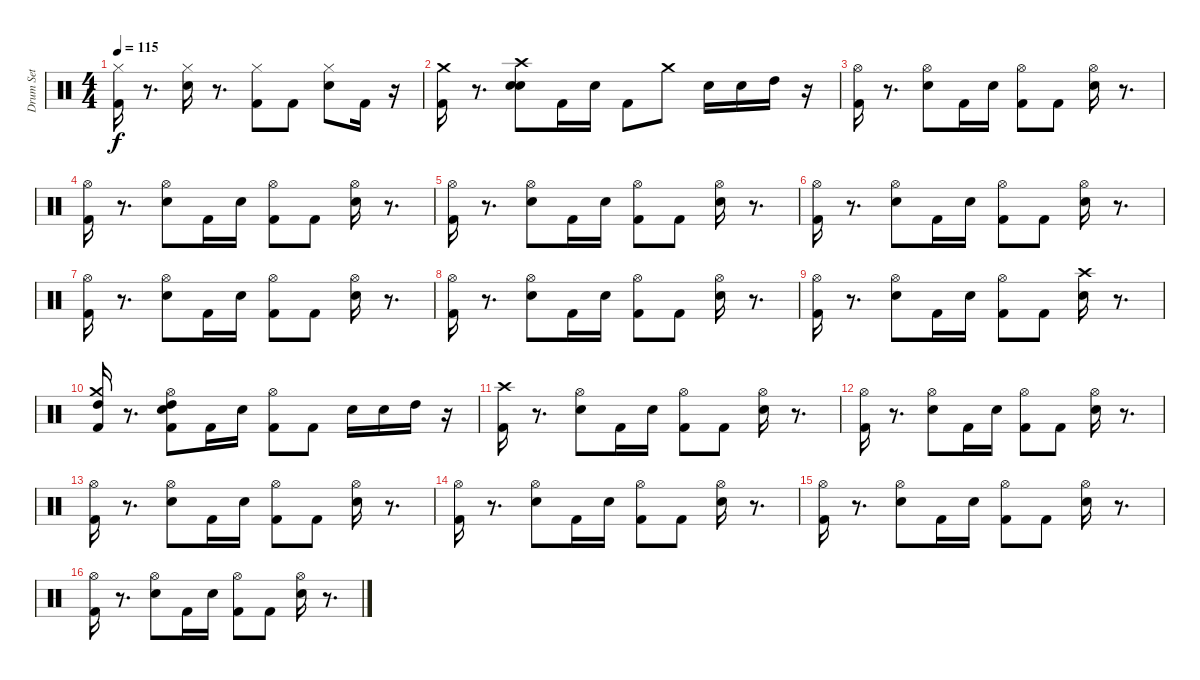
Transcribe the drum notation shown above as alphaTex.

\track ("Drum Set" "Drum Set") {instrument percussion}
\staff {score}
\articulation defaults
\ts (4 4)
\tempo 115
\clef neutral
\ks c
("Hi-Hat (closed)" "Kick (hit) 2").16{dy f} r.8{d} ("Hi-Hat (closed)" "Electric Snare (hit)").16 r.8{d} ("Hi-Hat (closed)" "Kick (hit) 2").8 "Kick (hit) 2".8 ("Hi-Hat (closed)" "Electric Snare (hit)").8 "Kick (hit) 2".16 r.16 |
("Crash medium (hit)" "Kick (hit) 2").16 r.8{d} ("Crash high (hit)" "Electric Snare (hit)" "Electric Snare (hit)").8 "Kick (hit) 2".16 "Electric Snare (hit)".16 "Kick (hit) 2".8 "Crash medium (hit)".8 "Electric Snare (hit)".16 "Electric Snare (hit)".16 "High Tom (hit)".16 r.16 |
("Hi-Hat (open)" "Kick (hit) 2").16 r.8{d} ("Hi-Hat (open)" "Electric Snare (hit)").8 "Kick (hit) 2".16 "Electric Snare (hit)".16 ("Hi-Hat (open)" "Kick (hit) 2").8 "Kick (hit) 2".8 ("Hi-Hat (open)" "Electric Snare (hit)").16 r.8{d} |
("Hi-Hat (open)" "Kick (hit) 2").16 r.8{d} ("Hi-Hat (open)" "Electric Snare (hit)").8 "Kick (hit) 2".16 "Electric Snare (hit)".16 ("Hi-Hat (open)" "Kick (hit) 2").8 "Kick (hit) 2".8 ("Hi-Hat (open)" "Electric Snare (hit)").16 r.8{d} |
("Hi-Hat (open)" "Kick (hit) 2").16 r.8{d} ("Hi-Hat (open)" "Electric Snare (hit)").8 "Kick (hit) 2".16 "Electric Snare (hit)".16 ("Hi-Hat (open)" "Kick (hit) 2").8 "Kick (hit) 2".8 ("Hi-Hat (open)" "Electric Snare (hit)").16 r.8{d} |
("Hi-Hat (open)" "Kick (hit) 2").16 r.8{d} ("Hi-Hat (open)" "Electric Snare (hit)").8 "Kick (hit) 2".16 "Electric Snare (hit)".16 ("Hi-Hat (open)" "Kick (hit) 2").8 "Kick (hit) 2".8 ("Hi-Hat (open)" "Electric Snare (hit)").16 r.8{d} |
("Hi-Hat (open)" "Kick (hit) 2").16 r.8{d} ("Hi-Hat (open)" "Electric Snare (hit)").8 "Kick (hit) 2".16 "Electric Snare (hit)".16 ("Hi-Hat (open)" "Kick (hit) 2").8 "Kick (hit) 2".8 ("Hi-Hat (open)" "Electric Snare (hit)").16 r.8{d} |
("Hi-Hat (open)" "Kick (hit) 2").16 r.8{d} ("Hi-Hat (open)" "Electric Snare (hit)").8 "Kick (hit) 2".16 "Electric Snare (hit)".16 ("Hi-Hat (open)" "Kick (hit) 2").8 "Kick (hit) 2".8 ("Hi-Hat (open)" "Electric Snare (hit)").16 r.8{d} |
("Hi-Hat (open)" "Kick (hit) 2").16 r.8{d} ("Hi-Hat (open)" "Electric Snare (hit)").8 "Kick (hit) 2".16 "Electric Snare (hit)".16 ("Hi-Hat (open)" "Kick (hit) 2").8 "Kick (hit) 2".8 ("Crash high (hit)" "Electric Snare (hit)").16 r.8{d} |
("Crash medium (hit)" "High Tom (hit)" "Kick (hit) 2").16 r.8{d} ("Hi-Hat (open)" "High Tom (hit)" "Electric Snare (hit)" "Kick (hit) 2").8 "Kick (hit) 2".16 "Electric Snare (hit)".16 ("Hi-Hat (open)" "Kick (hit) 2").8 "Kick (hit) 2".8 "Electric Snare (hit)".16 "Electric Snare (hit)".16 "High Tom (hit)".16 r.16 |
("Crash high (hit)" "Kick (hit) 2").16 r.8{d} ("Hi-Hat (open)" "Electric Snare (hit)").8 "Kick (hit) 2".16 "Electric Snare (hit)".16 ("Hi-Hat (open)" "Kick (hit) 2").8 "Kick (hit) 2".8 ("Hi-Hat (open)" "Electric Snare (hit)").16 r.8{d} |
("Hi-Hat (open)" "Kick (hit) 2").16 r.8{d} ("Hi-Hat (open)" "Electric Snare (hit)").8 "Kick (hit) 2".16 "Electric Snare (hit)".16 ("Hi-Hat (open)" "Kick (hit) 2").8 "Kick (hit) 2".8 ("Hi-Hat (open)" "Electric Snare (hit)").16 r.8{d} |
("Hi-Hat (open)" "Kick (hit) 2").16 r.8{d} ("Hi-Hat (open)" "Electric Snare (hit)").8 "Kick (hit) 2".16 "Electric Snare (hit)".16 ("Hi-Hat (open)" "Kick (hit) 2").8 "Kick (hit) 2".8 ("Hi-Hat (open)" "Electric Snare (hit)").16 r.8{d} |
("Hi-Hat (open)" "Kick (hit) 2").16 r.8{d} ("Hi-Hat (open)" "Electric Snare (hit)").8 "Kick (hit) 2".16 "Electric Snare (hit)".16 ("Hi-Hat (open)" "Kick (hit) 2").8 "Kick (hit) 2".8 ("Hi-Hat (open)" "Electric Snare (hit)").16 r.8{d} |
("Hi-Hat (open)" "Kick (hit) 2").16 r.8{d} ("Hi-Hat (open)" "Electric Snare (hit)").8 "Kick (hit) 2".16 "Electric Snare (hit)".16 ("Hi-Hat (open)" "Kick (hit) 2").8 "Kick (hit) 2".8 ("Hi-Hat (open)" "Electric Snare (hit)").16 r.8{d} |
("Hi-Hat (open)" "Kick (hit) 2").16 r.8{d} ("Hi-Hat (open)" "Electric Snare (hit)").8 "Kick (hit) 2".16 "Electric Snare (hit)".16 ("Hi-Hat (open)" "Kick (hit) 2").8 "Kick (hit) 2".8 ("Hi-Hat (open)" "Electric Snare (hit)").16 r.8{d}
